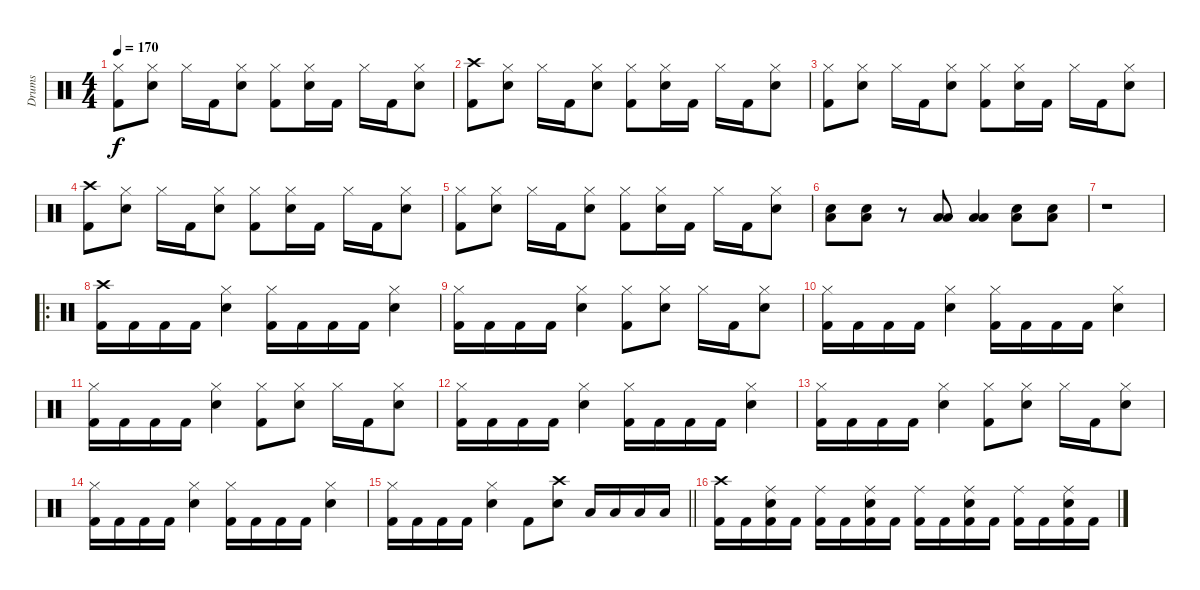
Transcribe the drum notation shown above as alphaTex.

\track ("Drums" "Drums") {instrument percussion}
\staff {score}
\articulation defaults
\ts (4 4)
\tempo 170
\clef neutral
\ks c
("Hi-Hat (closed)" "Kick (hit) 2").8{dy f} ("Hi-Hat (closed)" "Snare (hit) 2").8 "Hi-Hat (closed)".16 "Kick (hit) 2".16 ("Hi-Hat (closed)" "Snare (hit) 2").8 ("Hi-Hat (closed)" "Kick (hit) 2").8 ("Hi-Hat (closed)" "Snare (hit) 2").16 "Kick (hit) 2".16 "Hi-Hat (closed)".16 "Kick (hit) 2".16 ("Hi-Hat (closed)" "Snare (hit) 2").8 |
("Crash high (hit)" "Kick (hit) 2").8 ("Hi-Hat (closed)" "Snare (hit) 2").8 "Hi-Hat (closed)".16 "Kick (hit) 2".16 ("Hi-Hat (closed)" "Snare (hit) 2").8 ("Hi-Hat (closed)" "Kick (hit) 2").8 ("Hi-Hat (closed)" "Snare (hit) 2").16 "Kick (hit) 2".16 "Hi-Hat (closed)".16 "Kick (hit) 2".16 ("Hi-Hat (closed)" "Snare (hit) 2").8 |
("Hi-Hat (closed)" "Kick (hit) 2").8 ("Hi-Hat (closed)" "Snare (hit) 2").8 "Hi-Hat (closed)".16 "Kick (hit) 2".16 ("Hi-Hat (closed)" "Snare (hit) 2").8 ("Hi-Hat (closed)" "Kick (hit) 2").8 ("Hi-Hat (closed)" "Snare (hit) 2").16 "Kick (hit) 2".16 "Hi-Hat (closed)".16 "Kick (hit) 2".16 ("Hi-Hat (closed)" "Snare (hit) 2").8 |
("Crash high (hit)" "Kick (hit) 2").8 ("Hi-Hat (closed)" "Snare (hit) 2").8 "Hi-Hat (closed)".16 "Kick (hit) 2".16 ("Hi-Hat (closed)" "Snare (hit) 2").8 ("Hi-Hat (closed)" "Kick (hit) 2").8 ("Hi-Hat (closed)" "Snare (hit) 2").16 "Kick (hit) 2".16 "Hi-Hat (closed)".16 "Kick (hit) 2".16 ("Hi-Hat (closed)" "Snare (hit) 2").8 |
("Hi-Hat (closed)" "Kick (hit) 2").8 ("Hi-Hat (closed)" "Snare (hit) 2").8 "Hi-Hat (closed)".16 "Kick (hit) 2".16 ("Hi-Hat (closed)" "Snare (hit) 2").8 ("Hi-Hat (closed)" "Kick (hit) 2").8 ("Hi-Hat (closed)" "Snare (hit) 2").16 "Kick (hit) 2".16 "Hi-Hat (closed)".16 "Kick (hit) 2".16 ("Hi-Hat (closed)" "Snare (hit) 2").8 |
("Snare (hit) 2" "Low Floor Tom (hit)").8 ("Snare (hit) 2" "Low Floor Tom (hit)").8 r.8 ("Low Tom (hit)" "Low Floor Tom (hit)").8 ("Low Tom (hit)" "Low Floor Tom (hit)").4 ("Snare (hit) 2" "Low Floor Tom (hit)").8 ("Snare (hit) 2" "Low Floor Tom (hit)").8 |
r.1 |
\ro
("Crash high (hit)" "Kick (hit) 2").16 "Kick (hit) 2".16 "Kick (hit) 2".16 "Kick (hit) 2".16 ("Hi-Hat (closed)" "Snare (hit) 2").4 ("Hi-Hat (closed)" "Kick (hit) 2").16 "Kick (hit) 2".16 "Kick (hit) 2".16 "Kick (hit) 2".16 ("Hi-Hat (closed)" "Snare (hit) 2").4 |
("Hi-Hat (closed)" "Kick (hit) 2").16 "Kick (hit) 2".16 "Kick (hit) 2".16 "Kick (hit) 2".16 ("Hi-Hat (closed)" "Snare (hit) 2").4 ("Hi-Hat (closed)" "Kick (hit) 2").8 ("Hi-Hat (closed)" "Snare (hit) 2").8 "Hi-Hat (closed)".16 "Kick (hit) 2".16 ("Hi-Hat (closed)" "Snare (hit) 2").8 |
("Hi-Hat (closed)" "Kick (hit) 2").16 "Kick (hit) 2".16 "Kick (hit) 2".16 "Kick (hit) 2".16 ("Hi-Hat (closed)" "Snare (hit) 2").4 ("Hi-Hat (closed)" "Kick (hit) 2").16 "Kick (hit) 2".16 "Kick (hit) 2".16 "Kick (hit) 2".16 ("Hi-Hat (closed)" "Snare (hit) 2").4 |
("Hi-Hat (closed)" "Kick (hit) 2").16 "Kick (hit) 2".16 "Kick (hit) 2".16 "Kick (hit) 2".16 ("Hi-Hat (closed)" "Snare (hit) 2").4 ("Hi-Hat (closed)" "Kick (hit) 2").8 ("Hi-Hat (closed)" "Snare (hit) 2").8 "Hi-Hat (closed)".16 "Kick (hit) 2".16 ("Hi-Hat (closed)" "Snare (hit) 2").8 |
("Hi-Hat (closed)" "Kick (hit) 2").16 "Kick (hit) 2".16 "Kick (hit) 2".16 "Kick (hit) 2".16 ("Hi-Hat (closed)" "Snare (hit) 2").4 ("Hi-Hat (closed)" "Kick (hit) 2").16 "Kick (hit) 2".16 "Kick (hit) 2".16 "Kick (hit) 2".16 ("Hi-Hat (closed)" "Snare (hit) 2").4 |
("Hi-Hat (closed)" "Kick (hit) 2").16 "Kick (hit) 2".16 "Kick (hit) 2".16 "Kick (hit) 2".16 ("Hi-Hat (closed)" "Snare (hit) 2").4 ("Hi-Hat (closed)" "Kick (hit) 2").8 ("Hi-Hat (closed)" "Snare (hit) 2").8 "Hi-Hat (closed)".16 "Kick (hit) 2".16 ("Hi-Hat (closed)" "Snare (hit) 2").8 |
("Hi-Hat (closed)" "Kick (hit) 2").16 "Kick (hit) 2".16 "Kick (hit) 2".16 "Kick (hit) 2".16 ("Hi-Hat (closed)" "Snare (hit) 2").4 ("Hi-Hat (closed)" "Kick (hit) 2").16 "Kick (hit) 2".16 "Kick (hit) 2".16 "Kick (hit) 2".16 ("Hi-Hat (closed)" "Snare (hit) 2").4 |
\barLineRight lightlight
("Hi-Hat (closed)" "Kick (hit) 2").16 "Kick (hit) 2".16 "Kick (hit) 2".16 "Kick (hit) 2".16 ("Hi-Hat (closed)" "Snare (hit) 2").4 "Kick (hit) 2".8 ("Crash high (hit)" "Snare (hit) 2").8 "Low Tom (hit)".16 "Low Tom (hit)".16 "Low Floor Tom (hit)".16 "Low Floor Tom (hit)".16 |
("Crash high (hit)" "Kick (hit) 2").16 "Kick (hit) 2".16 ("Ride (middle)" "Snare (hit) 2" "Kick (hit) 2").16 "Kick (hit) 2".16 ("Ride (middle)" "Kick (hit) 2").16 "Kick (hit) 2".16 ("Ride (middle)" "Snare (hit) 2" "Kick (hit) 2").16 "Kick (hit) 2".16 ("Ride (middle)" "Kick (hit) 2").16 "Kick (hit) 2".16 ("Ride (middle)" "Snare (hit) 2" "Kick (hit) 2").16 "Kick (hit) 2".16 ("Ride (middle)" "Kick (hit) 2").16 "Kick (hit) 2".16 ("Ride (middle)" "Snare (hit) 2" "Kick (hit) 2").16 "Kick (hit) 2".16
